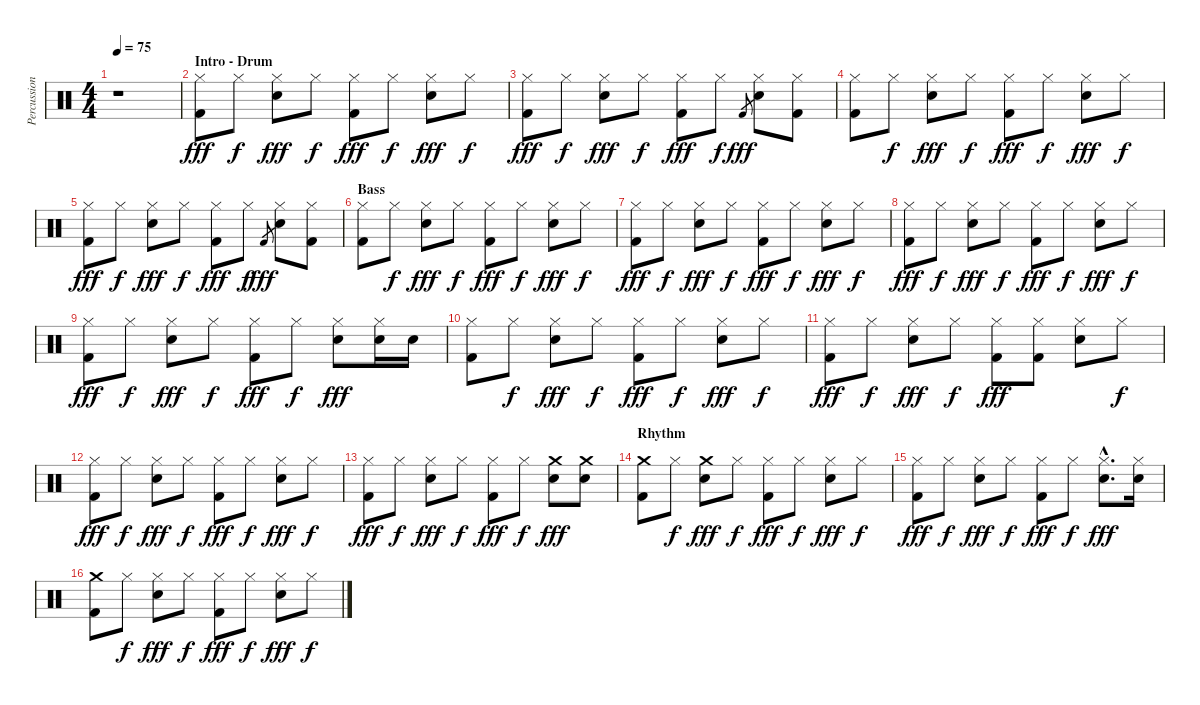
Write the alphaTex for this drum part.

\track ("Percussion" "Percussion") {instrument percussion}
\staff {score}
\articulation defaults
\ts (4 4)
\tempo 75
\clef neutral
\ks c
r.1{dy fff} |
\section ("" "Intro - Drum")
("Hi-Hat (closed)" "Kick (hit) 2").8 "Hi-Hat (closed)".8{dy f} ("Hi-Hat (closed)" "Electric Snare (hit)").8{dy fff} "Hi-Hat (closed)".8{dy f} ("Hi-Hat (closed)" "Kick (hit) 2").8{dy fff} "Hi-Hat (closed)".8{dy f} ("Hi-Hat (closed)" "Electric Snare (hit)").8{dy fff} "Hi-Hat (closed)".8{dy f} |
("Hi-Hat (closed)" "Kick (hit) 2").8{dy fff} "Hi-Hat (closed)".8{dy f} ("Hi-Hat (closed)" "Electric Snare (hit)").8{dy fff} "Hi-Hat (closed)".8{dy f} ("Hi-Hat (closed)" "Kick (hit) 2").8{dy fff} "Hi-Hat (closed)".8{dy f} "Kick (hit) 2".8{gr dy fff} ("Hi-Hat (closed)" "Electric Snare (hit)").8 ("Hi-Hat (closed)" "Kick (hit) 2").8 |
("Hi-Hat (closed)" "Kick (hit) 2").8 "Hi-Hat (closed)".8{dy f} ("Hi-Hat (closed)" "Electric Snare (hit)").8{dy fff} "Hi-Hat (closed)".8{dy f} ("Hi-Hat (closed)" "Kick (hit) 2").8{dy fff} "Hi-Hat (closed)".8{dy f} ("Hi-Hat (closed)" "Electric Snare (hit)").8{dy fff} "Hi-Hat (closed)".8{dy f} |
("Hi-Hat (closed)" "Kick (hit) 2").8{dy fff} "Hi-Hat (closed)".8{dy f} ("Hi-Hat (closed)" "Electric Snare (hit)").8{dy fff} "Hi-Hat (closed)".8{dy f} ("Hi-Hat (closed)" "Kick (hit) 2").8{dy fff} "Hi-Hat (closed)".8{dy f} "Kick (hit) 2"{h}.8{gr dy fff} ("Hi-Hat (closed)" "Electric Snare (hit)").8 ("Hi-Hat (closed)" "Kick (hit) 2").8 |
\section ("" "Bass")
("Hi-Hat (closed)" "Kick (hit) 2").8 "Hi-Hat (closed)".8{dy f} ("Hi-Hat (closed)" "Electric Snare (hit)").8{dy fff} "Hi-Hat (closed)".8{dy f} ("Hi-Hat (closed)" "Kick (hit) 2").8{dy fff} "Hi-Hat (closed)".8{dy f} ("Hi-Hat (closed)" "Electric Snare (hit)").8{dy fff} "Hi-Hat (closed)".8{dy f} |
("Hi-Hat (closed)" "Kick (hit) 2").8{dy fff} "Hi-Hat (closed)".8{dy f} ("Hi-Hat (closed)" "Electric Snare (hit)").8{dy fff} "Hi-Hat (closed)".8{dy f} ("Hi-Hat (closed)" "Kick (hit) 2").8{dy fff} "Hi-Hat (closed)".8{dy f} ("Hi-Hat (closed)" "Electric Snare (hit)").8{dy fff} "Hi-Hat (closed)".8{dy f} |
("Hi-Hat (closed)" "Kick (hit) 2").8{dy fff} "Hi-Hat (closed)".8{dy f} ("Hi-Hat (closed)" "Electric Snare (hit)").8{dy fff} "Hi-Hat (closed)".8{dy f} ("Hi-Hat (closed)" "Kick (hit) 2").8{dy fff} "Hi-Hat (closed)".8{dy f} ("Hi-Hat (closed)" "Electric Snare (hit)").8{dy fff} "Hi-Hat (closed)".8{dy f} |
("Hi-Hat (closed)" "Kick (hit) 2").8{dy fff} "Hi-Hat (closed)".8{dy f} ("Hi-Hat (closed)" "Electric Snare (hit)").8{dy fff} "Hi-Hat (closed)".8{dy f} ("Hi-Hat (closed)" "Kick (hit) 2").8{dy fff} "Hi-Hat (closed)".8{dy f} ("Hi-Hat (closed)" "Electric Snare (hit)").8{dy fff} ("Hi-Hat (closed)" "Electric Snare (hit)").16 "Electric Snare (hit)".16 |
("Hi-Hat (closed)" "Kick (hit) 2").8 "Hi-Hat (closed)".8{dy f} ("Hi-Hat (closed)" "Electric Snare (hit)").8{dy fff} "Hi-Hat (closed)".8{dy f} ("Hi-Hat (closed)" "Kick (hit) 2").8{dy fff} "Hi-Hat (closed)".8{dy f} ("Hi-Hat (closed)" "Electric Snare (hit)").8{dy fff} "Hi-Hat (closed)".8{dy f} |
("Hi-Hat (closed)" "Kick (hit) 2").8{dy fff} "Hi-Hat (closed)".8{dy f} ("Hi-Hat (closed)" "Electric Snare (hit)").8{dy fff} "Hi-Hat (closed)".8{dy f} ("Hi-Hat (closed)" "Kick (hit) 2").8{dy fff} ("Hi-Hat (closed)" "Kick (hit) 2").8 ("Hi-Hat (closed)" "Electric Snare (hit)").8 "Hi-Hat (closed)".8{dy f} |
("Hi-Hat (closed)" "Kick (hit) 2").8{dy fff} "Hi-Hat (closed)".8{dy f} ("Hi-Hat (closed)" "Electric Snare (hit)").8{dy fff} "Hi-Hat (closed)".8{dy f} ("Hi-Hat (closed)" "Kick (hit) 2").8{dy fff} "Hi-Hat (closed)".8{dy f} ("Hi-Hat (closed)" "Electric Snare (hit)").8{dy fff} "Hi-Hat (closed)".8{dy f} |
("Hi-Hat (closed)" "Kick (hit) 2").8{dy fff} "Hi-Hat (closed)".8{dy f} ("Hi-Hat (closed)" "Electric Snare (hit)").8{dy fff} "Hi-Hat (closed)".8{dy f} ("Hi-Hat (closed)" "Kick (hit) 2").8{dy fff} "Hi-Hat (closed)".8{dy f} ("Crash medium (hit)" "Electric Snare (hit)").8{dy fff} ("Crash medium (hit)" "Electric Snare (hit)").8 |
\section ("" "Rhythm")
("Crash medium (hit)" "Kick (hit) 2").8 "Hi-Hat (closed)".8{dy f} ("Crash medium (hit)" "Electric Snare (hit)").8{dy fff} "Hi-Hat (closed)".8{dy f} ("Hi-Hat (closed)" "Kick (hit) 2").8{dy fff} "Hi-Hat (closed)".8{dy f} ("Hi-Hat (closed)" "Electric Snare (hit)").8{dy fff} "Hi-Hat (closed)".8{dy f} |
("Hi-Hat (closed)" "Kick (hit) 2").8{dy fff} "Hi-Hat (closed)".8{dy f} ("Hi-Hat (closed)" "Electric Snare (hit)").8{dy fff} "Hi-Hat (closed)".8{dy f} ("Hi-Hat (closed)" "Kick (hit) 2").8{dy fff} "Hi-Hat (closed)".8{dy f} ("Hi-Hat (closed)"{hac} "Electric Snare (hit)"{hac}).8{d dy fff} ("Hi-Hat (closed)" "Electric Snare (hit)").16 |
("Crash medium (hit)" "Kick (hit) 2").8 "Hi-Hat (closed)".8{dy f} ("Hi-Hat (closed)" "Electric Snare (hit)").8{dy fff} "Hi-Hat (closed)".8{dy f} ("Hi-Hat (closed)" "Kick (hit) 2").8{dy fff} "Hi-Hat (closed)".8{dy f} ("Hi-Hat (closed)" "Electric Snare (hit)").8{dy fff} "Hi-Hat (closed)".8{dy f}
